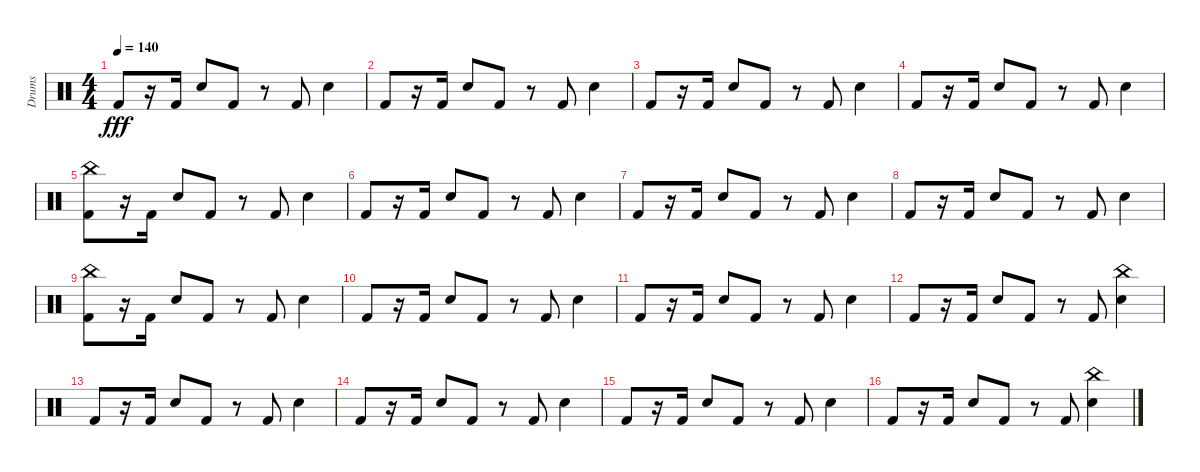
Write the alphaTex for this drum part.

\track ("Drums" "Drums") {instrument percussion}
\staff {score}
\articulation defaults
\ts (4 4)
\tempo 140
\clef neutral
\ks c "Kick (hit) 2".8{dy fff}
r.16 "Kick (hit) 2".16 "Snare (hit) 2".8 "Kick (hit) 2".8 r.8 "Kick (hit) 2".8 "Snare (hit) 2".4 |
"Kick (hit) 2".8 r.16 "Kick (hit) 2".16 "Snare (hit) 2".8 "Kick (hit) 2".8 r.8 "Kick (hit) 2".8 "Snare (hit) 2".4 |
"Kick (hit) 2".8 r.16 "Kick (hit) 2".16 "Snare (hit) 2".8 "Kick (hit) 2".8 r.8 "Kick (hit) 2".8 "Snare (hit) 2".4 |
"Kick (hit) 2".8 r.16 "Kick (hit) 2".16 "Snare (hit) 2".8 "Kick (hit) 2".8 r.8 "Kick (hit) 2".8 "Snare (hit) 2".4 |
("China (hit)" "Kick (hit) 2").8 r.16 "Kick (hit) 2".16 "Snare (hit) 2".8 "Kick (hit) 2".8 r.8 "Kick (hit) 2".8 "Snare (hit) 2".4 |
"Kick (hit) 2".8 r.16 "Kick (hit) 2".16 "Snare (hit) 2".8 "Kick (hit) 2".8 r.8 "Kick (hit) 2".8 "Snare (hit) 2".4 |
"Kick (hit) 2".8 r.16 "Kick (hit) 2".16 "Snare (hit) 2".8 "Kick (hit) 2".8 r.8 "Kick (hit) 2".8 "Snare (hit) 2".4 |
"Kick (hit) 2".8 r.16 "Kick (hit) 2".16 "Snare (hit) 2".8 "Kick (hit) 2".8 r.8 "Kick (hit) 2".8 "Snare (hit) 2".4 |
("China (hit)" "Kick (hit) 2").8 r.16 "Kick (hit) 2".16 "Snare (hit) 2".8 "Kick (hit) 2".8 r.8 "Kick (hit) 2".8 "Snare (hit) 2".4 |
"Kick (hit) 2".8 r.16 "Kick (hit) 2".16 "Snare (hit) 2".8 "Kick (hit) 2".8 r.8 "Kick (hit) 2".8 "Snare (hit) 2".4 |
"Kick (hit) 2".8 r.16 "Kick (hit) 2".16 "Snare (hit) 2".8 "Kick (hit) 2".8 r.8 "Kick (hit) 2".8 "Snare (hit) 2".4 |
"Kick (hit) 2".8 r.16 "Kick (hit) 2".16 "Snare (hit) 2".8 "Kick (hit) 2".8 r.8 "Kick (hit) 2".8 ("China (hit)" "Snare (hit) 2").4 |
"Kick (hit) 2".8 r.16 "Kick (hit) 2".16 "Snare (hit) 2".8 "Kick (hit) 2".8 r.8 "Kick (hit) 2".8 "Snare (hit) 2".4 |
"Kick (hit) 2".8 r.16 "Kick (hit) 2".16 "Snare (hit) 2".8 "Kick (hit) 2".8 r.8 "Kick (hit) 2".8 "Snare (hit) 2".4 |
"Kick (hit) 2".8 r.16 "Kick (hit) 2".16 "Snare (hit) 2".8 "Kick (hit) 2".8 r.8 "Kick (hit) 2".8 "Snare (hit) 2".4 |
"Kick (hit) 2".8 r.16 "Kick (hit) 2".16 "Snare (hit) 2".8 "Kick (hit) 2".8 r.8 "Kick (hit) 2".8 ("China (hit)" "Snare (hit) 2").4
